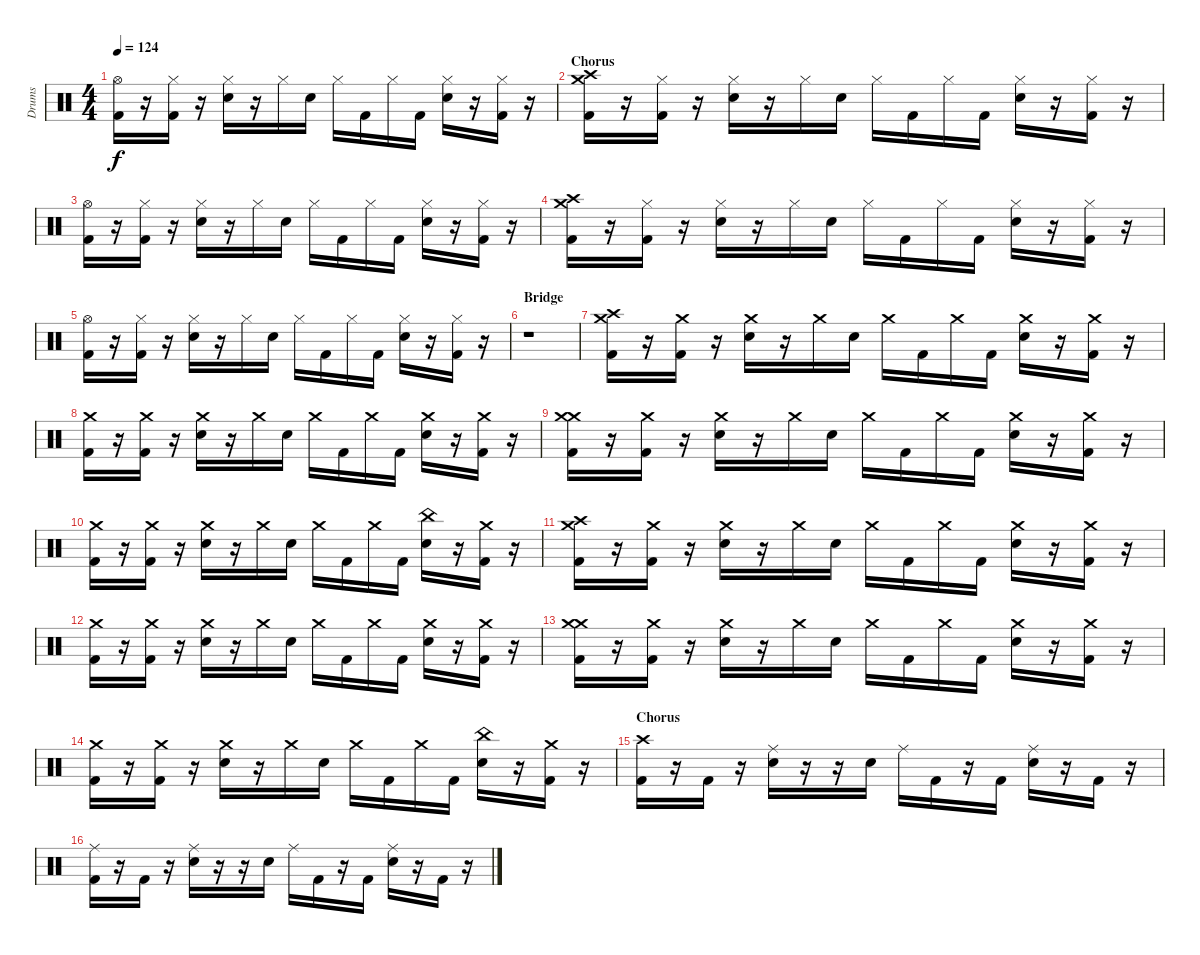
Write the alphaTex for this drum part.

\track ("Drums" "Drums") {instrument percussion}
\staff {score}
\articulation defaults
\ts (4 4)
\tempo 124
\clef neutral
\ks c
("Hi-Hat (open)" "Kick (hit) 2").16{dy f} r.16 ("Hi-Hat (closed)" "Kick (hit) 2").16 r.16 ("Hi-Hat (closed)" "Snare (hit) 2").16 r.16 "Hi-Hat (closed)".16 "Snare (hit) 2".16 "Hi-Hat (closed)".16 "Kick (hit) 2".16 "Hi-Hat (closed)".16 "Kick (hit) 2".16 ("Hi-Hat (closed)" "Snare (hit) 2").16 r.16 ("Hi-Hat (closed)" "Kick (hit) 2").16 r.16 |
\section ("" "Chorus")
("Crash high (hit)" "Crash medium (hit)" "Kick (hit) 2").16 r.16 ("Hi-Hat (closed)" "Kick (hit) 2").16 r.16 ("Hi-Hat (closed)" "Snare (hit) 2").16 r.16 "Hi-Hat (closed)".16 "Snare (hit) 2".16 "Hi-Hat (closed)".16 "Kick (hit) 2".16 "Hi-Hat (closed)".16 "Kick (hit) 2".16 ("Hi-Hat (closed)" "Snare (hit) 2").16 r.16 ("Hi-Hat (closed)" "Kick (hit) 2").16 r.16 |
("Hi-Hat (open)" "Kick (hit) 2").16 r.16 ("Hi-Hat (closed)" "Kick (hit) 2").16 r.16 ("Hi-Hat (closed)" "Snare (hit) 2").16 r.16 "Hi-Hat (closed)".16 "Snare (hit) 2".16 "Hi-Hat (closed)".16 "Kick (hit) 2".16 "Hi-Hat (closed)".16 "Kick (hit) 2".16 ("Hi-Hat (closed)" "Snare (hit) 2").16 r.16 ("Hi-Hat (closed)" "Kick (hit) 2").16 r.16 |
("Crash high (hit)" "Crash medium (hit)" "Kick (hit) 2").16 r.16 ("Hi-Hat (closed)" "Kick (hit) 2").16 r.16 ("Hi-Hat (closed)" "Snare (hit) 2").16 r.16 "Hi-Hat (closed)".16 "Snare (hit) 2".16 "Hi-Hat (closed)".16 "Kick (hit) 2".16 "Hi-Hat (closed)".16 "Kick (hit) 2".16 ("Hi-Hat (closed)" "Snare (hit) 2").16 r.16 ("Hi-Hat (closed)" "Kick (hit) 2").16 r.16 |
("Hi-Hat (open)" "Kick (hit) 2").16 r.16 ("Hi-Hat (closed)" "Kick (hit) 2").16 r.16 ("Hi-Hat (closed)" "Snare (hit) 2").16 r.16 "Hi-Hat (closed)".16 "Snare (hit) 2".16 "Hi-Hat (closed)".16 "Kick (hit) 2".16 "Hi-Hat (closed)".16 "Kick (hit) 2".16 ("Hi-Hat (closed)" "Snare (hit) 2").16 r.16 ("Hi-Hat (closed)" "Kick (hit) 2").16 r.16 |
\section ("" "Bridge")
r.1 |
("Crash high (hit)" "Crash medium (hit)" "Kick (hit) 2").16 r.16 ("Crash medium (hit)" "Kick (hit) 2").16 r.16 ("Crash medium (hit)" "Snare (hit) 2").16 r.16 "Crash medium (hit)".16 "Snare (hit) 2".16 "Crash medium (hit)".16 "Kick (hit) 2".16 "Crash medium (hit)".16 "Kick (hit) 2".16 ("Crash medium (hit)" "Snare (hit) 2").16 r.16 ("Crash medium (hit)" "Kick (hit) 2").16 r.16 |
("Crash medium (hit)" "Kick (hit) 2").16 r.16 ("Crash medium (hit)" "Kick (hit) 2").16 r.16 ("Crash medium (hit)" "Snare (hit) 2").16 r.16 "Crash medium (hit)".16 "Snare (hit) 2".16 "Crash medium (hit)".16 "Kick (hit) 2".16 "Crash medium (hit)".16 "Kick (hit) 2".16 ("Crash medium (hit)" "Snare (hit) 2").16 r.16 ("Crash medium (hit)" "Kick (hit) 2").16 r.16 |
("Crash medium (hit)" "Crash medium (hit)" "Kick (hit) 2").16 r.16 ("Crash medium (hit)" "Kick (hit) 2").16 r.16 ("Crash medium (hit)" "Snare (hit) 2").16 r.16 "Crash medium (hit)".16 "Snare (hit) 2".16 "Crash medium (hit)".16 "Kick (hit) 2".16 "Crash medium (hit)".16 "Kick (hit) 2".16 ("Crash medium (hit)" "Snare (hit) 2").16 r.16 ("Crash medium (hit)" "Kick (hit) 2").16 r.16 |
("Crash medium (hit)" "Kick (hit) 2").16 r.16 ("Crash medium (hit)" "Kick (hit) 2").16 r.16 ("Crash medium (hit)" "Snare (hit) 2").16 r.16 "Crash medium (hit)".16 "Snare (hit) 2".16 "Crash medium (hit)".16 "Kick (hit) 2".16 "Crash medium (hit)".16 "Kick (hit) 2".16 ("China (hit)" "Snare (hit) 2").16 r.16 ("Crash medium (hit)" "Kick (hit) 2").16 r.16 |
("Crash high (hit)" "Crash medium (hit)" "Kick (hit) 2").16 r.16 ("Crash medium (hit)" "Kick (hit) 2").16 r.16 ("Crash medium (hit)" "Snare (hit) 2").16 r.16 "Crash medium (hit)".16 "Snare (hit) 2".16 "Crash medium (hit)".16 "Kick (hit) 2".16 "Crash medium (hit)".16 "Kick (hit) 2".16 ("Crash medium (hit)" "Snare (hit) 2").16 r.16 ("Crash medium (hit)" "Kick (hit) 2").16 r.16 |
("Crash medium (hit)" "Kick (hit) 2").16 r.16 ("Crash medium (hit)" "Kick (hit) 2").16 r.16 ("Crash medium (hit)" "Snare (hit) 2").16 r.16 "Crash medium (hit)".16 "Snare (hit) 2".16 "Crash medium (hit)".16 "Kick (hit) 2".16 "Crash medium (hit)".16 "Kick (hit) 2".16 ("Crash medium (hit)" "Snare (hit) 2").16 r.16 ("Crash medium (hit)" "Kick (hit) 2").16 r.16 |
("Crash medium (hit)" "Crash medium (hit)" "Kick (hit) 2").16 r.16 ("Crash medium (hit)" "Kick (hit) 2").16 r.16 ("Crash medium (hit)" "Snare (hit) 2").16 r.16 "Crash medium (hit)".16 "Snare (hit) 2".16 "Crash medium (hit)".16 "Kick (hit) 2".16 "Crash medium (hit)".16 "Kick (hit) 2".16 ("Crash medium (hit)" "Snare (hit) 2").16 r.16 ("Crash medium (hit)" "Kick (hit) 2").16 r.16 |
("Crash medium (hit)" "Kick (hit) 2").16 r.16 ("Crash medium (hit)" "Kick (hit) 2").16 r.16 ("Crash medium (hit)" "Snare (hit) 2").16 r.16 "Crash medium (hit)".16 "Snare (hit) 2".16 "Crash medium (hit)".16 "Kick (hit) 2".16 "Crash medium (hit)".16 "Kick (hit) 2".16 ("China (hit)" "Snare (hit) 2").16 r.16 ("Crash medium (hit)" "Kick (hit) 2").16 r.16 |
\section ("" "Chorus")
("Crash high (hit)" "Kick (hit) 2").16 r.16 "Kick (hit) 2".16 r.16 ("Ride (middle)" "Snare (hit) 2").16 r.16 r.16 "Snare (hit) 2".16 "Ride (middle)".16 "Kick (hit) 2".16 r.16 "Kick (hit) 2".16 ("Ride (middle)" "Snare (hit) 2").16 r.16 "Kick (hit) 2".16 r.16 |
("Ride (middle)" "Kick (hit) 2").16 r.16 "Kick (hit) 2".16 r.16 ("Ride (middle)" "Snare (hit) 2").16 r.16 r.16 "Snare (hit) 2".16 "Ride (middle)".16 "Kick (hit) 2".16 r.16 "Kick (hit) 2".16 ("Ride (middle)" "Snare (hit) 2").16 r.16 "Kick (hit) 2".16 r.16
